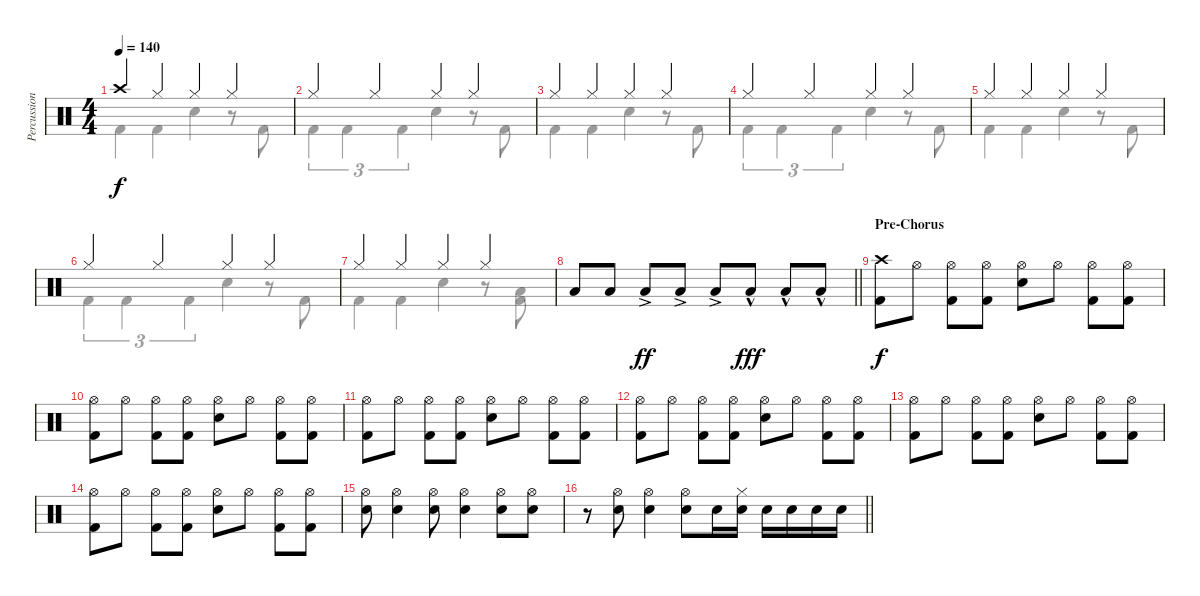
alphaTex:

\track ("Percussion (LP III)" "Percussion") {instrument percussion}
\staff {score}
\articulation defaults
\voice
\ts (4 4)
\tempo 140
\clef neutral
\ks c "Crash high (hit)".4{dy f} "Hi-Hat (closed)".4 "Hi-Hat (closed)".4 "Hi-Hat (closed)".4
|
"Hi-Hat (closed)".4 "Hi-Hat (closed)".4 "Hi-Hat (closed)".4 "Hi-Hat (closed)".4 |
"Hi-Hat (closed)".4 "Hi-Hat (closed)".4 "Hi-Hat (closed)".4 "Hi-Hat (closed)".4 |
"Hi-Hat (closed)".4 "Hi-Hat (closed)".4 "Hi-Hat (closed)".4 "Hi-Hat (closed)".4 |
"Hi-Hat (closed)".4 "Hi-Hat (closed)".4 "Hi-Hat (closed)".4 "Hi-Hat (closed)".4 |
"Hi-Hat (closed)".4 "Hi-Hat (closed)".4 "Hi-Hat (closed)".4 "Hi-Hat (closed)".4 |
"Hi-Hat (closed)".4 "Hi-Hat (closed)".4 "Hi-Hat (closed)".4 "Hi-Hat (closed)".4 |
\barLineRight lightlight "Low Tom (hit)".8 "Low Tom (hit)".8 "Low Tom (hit)"{ac}.8{dy ff} "Low Tom (hit)"{ac}.8 "Low Tom (hit)"{ac}.8 "Low Tom (hit)"{hac}.8{dy fff} "Low Tom (hit)"{hac}.8 "Low Tom (hit)"{hac}.8
|
\section ("" "Pre-Chorus")
("Crash high (hit)" "Kick (hit) 2").8{dy f} "Hi-Hat (open)".8 ("Hi-Hat (open)" "Kick (hit) 2").8 ("Hi-Hat (open)" "Kick (hit) 2").8 ("Hi-Hat (open)" "Snare (hit) 2").8 "Hi-Hat (open)".8 ("Hi-Hat (open)" "Kick (hit) 2").8 ("Hi-Hat (open)" "Kick (hit) 2").8 |
("Hi-Hat (open)" "Kick (hit) 2").8 "Hi-Hat (open)".8 ("Hi-Hat (open)" "Kick (hit) 2").8 ("Hi-Hat (open)" "Kick (hit) 2").8 ("Hi-Hat (open)" "Snare (hit) 2").8 "Hi-Hat (open)".8 ("Hi-Hat (open)" "Kick (hit) 2").8 ("Hi-Hat (open)" "Kick (hit) 2").8 |
("Hi-Hat (open)" "Kick (hit) 2").8 "Hi-Hat (open)".8 ("Hi-Hat (open)" "Kick (hit) 2").8 ("Hi-Hat (open)" "Kick (hit) 2").8 ("Hi-Hat (open)" "Snare (hit) 2").8 "Hi-Hat (open)".8 ("Hi-Hat (open)" "Kick (hit) 2").8 ("Hi-Hat (open)" "Kick (hit) 2").8 |
("Hi-Hat (open)" "Kick (hit) 2").8 "Hi-Hat (open)".8 ("Hi-Hat (open)" "Kick (hit) 2").8 ("Hi-Hat (open)" "Kick (hit) 2").8 ("Hi-Hat (open)" "Snare (hit) 2").8 "Hi-Hat (open)".8 ("Hi-Hat (open)" "Kick (hit) 2").8 ("Hi-Hat (open)" "Kick (hit) 2").8 |
("Hi-Hat (open)" "Kick (hit) 2").8 "Hi-Hat (open)".8 ("Hi-Hat (open)" "Kick (hit) 2").8 ("Hi-Hat (open)" "Kick (hit) 2").8 ("Hi-Hat (open)" "Snare (hit) 2").8 "Hi-Hat (open)".8 ("Hi-Hat (open)" "Kick (hit) 2").8 ("Hi-Hat (open)" "Kick (hit) 2").8 |
("Hi-Hat (open)" "Kick (hit) 2").8 "Hi-Hat (open)".8 ("Hi-Hat (open)" "Kick (hit) 2").8 ("Hi-Hat (open)" "Kick (hit) 2").8 ("Hi-Hat (open)" "Snare (hit) 2").8 "Hi-Hat (open)".8 ("Hi-Hat (open)" "Kick (hit) 2").8 ("Hi-Hat (open)" "Kick (hit) 2").8 |
("Hi-Hat (open)" "Snare (hit) 2").8 ("Hi-Hat (open)" "Snare (hit) 2").4 ("Hi-Hat (open)" "Snare (hit) 2").8 ("Hi-Hat (open)" "Snare (hit) 2").4 ("Hi-Hat (open)" "Snare (hit) 2").8 ("Hi-Hat (open)" "Snare (hit) 2").8 |
\barLineRight lightlight
r.8 ("Hi-Hat (open)" "Snare (hit) 2").8 ("Hi-Hat (open)" "Snare (hit) 2").4 ("Hi-Hat (open)" "Snare (hit) 2").8 "Snare (hit) 2".16 ("Hi-Hat (closed)" "Snare (hit) 2").16 "Snare (hit) 2".16 "Snare (hit) 2".16 "Snare (hit) 2".16 "Snare (hit) 2".16
\voice
\clef neutral
\ottava regular
\simile none
\ks c "Kick (hit) 2".4{dy f} "Kick (hit) 2".4 "Snare (hit) 2".4
r.8 "Kick (hit) 2".8 |
"Kick (hit) 2".4{tu (3 2)} "Kick (hit) 2".4{tu (3 2)} "Kick (hit) 2".4{tu (3 2)} "Snare (hit) 2".4 r.8 "Kick (hit) 2".8 |
"Kick (hit) 2".4 "Kick (hit) 2".4 "Snare (hit) 2".4 r.8 "Kick (hit) 2".8 |
"Kick (hit) 2".4{tu (3 2)} "Kick (hit) 2".4{tu (3 2)} "Kick (hit) 2".4{tu (3 2)} "Snare (hit) 2".4 r.8 "Kick (hit) 2".8 |
"Kick (hit) 2".4 "Kick (hit) 2".4 "Snare (hit) 2".4 r.8 "Kick (hit) 2".8 |
"Kick (hit) 2".4{tu (3 2)} "Kick (hit) 2".4{tu (3 2)} "Kick (hit) 2".4{tu (3 2)} "Snare (hit) 2".4 r.8 "Kick (hit) 2".8 |
"Kick (hit) 2".4 "Kick (hit) 2".4 "Snare (hit) 2".4 r.8 ("Low Tom (hit)" "Kick (hit) 2").8 |
\barLineRight lightlight
|
|
|
|
|
|
|
|
\barLineRight lightlight
